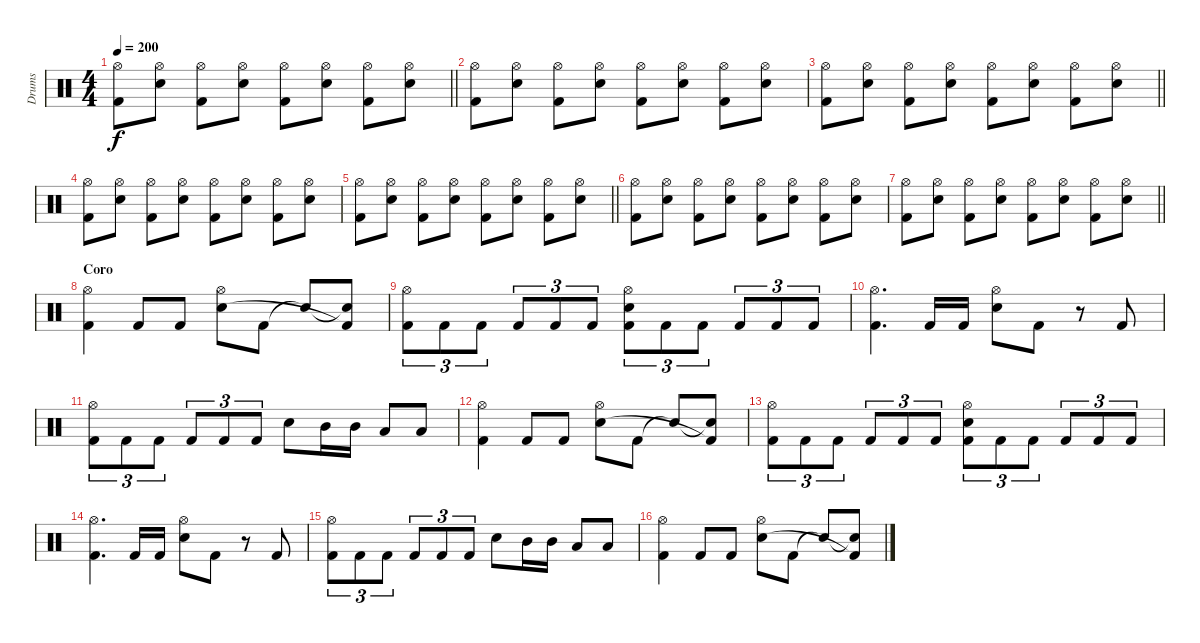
\track ("Drums" "Drums") {instrument percussion}
\staff {score}
\articulation defaults
\ts (4 4)
\tempo 200
\clef neutral
\barLineRight lightlight
\ks c
("Hi-Hat (open)" "Kick (hit) 2").8{dy f} ("Hi-Hat (open)" "Electric Snare (hit)").8 ("Hi-Hat (open)" "Kick (hit) 2").8 ("Hi-Hat (open)" "Electric Snare (hit)").8 ("Hi-Hat (open)" "Kick (hit) 2").8 ("Hi-Hat (open)" "Electric Snare (hit)").8 ("Hi-Hat (open)" "Kick (hit) 2").8 ("Hi-Hat (open)" "Electric Snare (hit)").8 |
("Hi-Hat (open)" "Kick (hit) 2").8 ("Hi-Hat (open)" "Electric Snare (hit)").8 ("Hi-Hat (open)" "Kick (hit) 2").8 ("Hi-Hat (open)" "Electric Snare (hit)").8 ("Hi-Hat (open)" "Kick (hit) 2").8 ("Hi-Hat (open)" "Electric Snare (hit)").8 ("Hi-Hat (open)" "Kick (hit) 2").8 ("Hi-Hat (open)" "Electric Snare (hit)").8 |
\barLineRight lightlight
("Hi-Hat (open)" "Kick (hit) 2").8 ("Hi-Hat (open)" "Electric Snare (hit)").8 ("Hi-Hat (open)" "Kick (hit) 2").8 ("Hi-Hat (open)" "Electric Snare (hit)").8 ("Hi-Hat (open)" "Kick (hit) 2").8 ("Hi-Hat (open)" "Electric Snare (hit)").8 ("Hi-Hat (open)" "Kick (hit) 2").8 ("Hi-Hat (open)" "Electric Snare (hit)").8 |
("Hi-Hat (open)" "Kick (hit) 2").8 ("Hi-Hat (open)" "Electric Snare (hit)").8 ("Hi-Hat (open)" "Kick (hit) 2").8 ("Hi-Hat (open)" "Electric Snare (hit)").8 ("Hi-Hat (open)" "Kick (hit) 2").8 ("Hi-Hat (open)" "Electric Snare (hit)").8 ("Hi-Hat (open)" "Kick (hit) 2").8 ("Hi-Hat (open)" "Electric Snare (hit)").8 |
\barLineRight lightlight
("Hi-Hat (open)" "Kick (hit) 2").8 ("Hi-Hat (open)" "Electric Snare (hit)").8 ("Hi-Hat (open)" "Kick (hit) 2").8 ("Hi-Hat (open)" "Electric Snare (hit)").8 ("Hi-Hat (open)" "Kick (hit) 2").8 ("Hi-Hat (open)" "Electric Snare (hit)").8 ("Hi-Hat (open)" "Kick (hit) 2").8 ("Hi-Hat (open)" "Electric Snare (hit)").8 |
("Hi-Hat (open)" "Kick (hit) 2").8 ("Hi-Hat (open)" "Electric Snare (hit)").8 ("Hi-Hat (open)" "Kick (hit) 2").8 ("Hi-Hat (open)" "Electric Snare (hit)").8 ("Hi-Hat (open)" "Kick (hit) 2").8 ("Hi-Hat (open)" "Electric Snare (hit)").8 ("Hi-Hat (open)" "Kick (hit) 2").8 ("Hi-Hat (open)" "Electric Snare (hit)").8 |
\barLineRight lightlight
("Hi-Hat (open)" "Kick (hit) 2").8 ("Hi-Hat (open)" "Electric Snare (hit)").8 ("Hi-Hat (open)" "Kick (hit) 2").8 ("Hi-Hat (open)" "Electric Snare (hit)").8 ("Hi-Hat (open)" "Kick (hit) 2").8 ("Hi-Hat (open)" "Electric Snare (hit)").8 ("Hi-Hat (open)" "Kick (hit) 2").8 ("Hi-Hat (open)" "Electric Snare (hit)").8 |
\section ("" "Coro")
("Hi-Hat (open)" "Kick (hit) 2").4 "Kick (hit) 2".8 "Kick (hit) 2".8 ("Hi-Hat (open)" "Electric Snare (hit)").8 "Kick (hit) 2".8 "Snare (hit)"{t}.8 ("Snare (hit)"{t} "Kick (hit) 2"{t}).8 |
("Hi-Hat (open)" "Kick (hit) 2").8{tu (3 2)} "Kick (hit) 2".8{tu (3 2)} "Kick (hit) 2".8{tu (3 2)} "Kick (hit) 2".8{tu (3 2)} "Kick (hit) 2".8{tu (3 2)} "Kick (hit) 2".8{tu (3 2)} ("Hi-Hat (open)" "Electric Snare (hit)" "Kick (hit) 2").8{tu (3 2)} "Kick (hit) 2".8{tu (3 2)} "Kick (hit) 2".8{tu (3 2)} "Kick (hit) 2".8{tu (3 2)} "Kick (hit) 2".8{tu (3 2)} "Kick (hit) 2".8{tu (3 2)} |
("Hi-Hat (open)" "Kick (hit) 2").4{d} "Kick (hit) 2".16 "Kick (hit) 2".16 ("Hi-Hat (open)" "Electric Snare (hit)").8 "Kick (hit) 2".8 r.8 "Kick (hit) 2".8 |
("Hi-Hat (open)" "Kick (hit) 2").8{tu (3 2)} "Kick (hit) 2".8{tu (3 2)} "Kick (hit) 2".8{tu (3 2)} "Kick (hit) 2".8{tu (3 2)} "Kick (hit) 2".8{tu (3 2)} "Kick (hit) 2".8{tu (3 2)} "Electric Snare (hit)".8 "Mid Tom (hit)".16 "Mid Tom (hit)".16 "Low Tom (hit)".8 "Low Tom (hit)".8 |
("Hi-Hat (open)" "Kick (hit) 2").4 "Kick (hit) 2".8 "Kick (hit) 2".8 ("Hi-Hat (open)" "Electric Snare (hit)").8 "Kick (hit) 2".8 "Snare (hit)"{t}.8 ("Snare (hit)"{t} "Kick (hit) 2"{t}).8 |
("Hi-Hat (open)" "Kick (hit) 2").8{tu (3 2)} "Kick (hit) 2".8{tu (3 2)} "Kick (hit) 2".8{tu (3 2)} "Kick (hit) 2".8{tu (3 2)} "Kick (hit) 2".8{tu (3 2)} "Kick (hit) 2".8{tu (3 2)} ("Hi-Hat (open)" "Electric Snare (hit)" "Kick (hit) 2").8{tu (3 2)} "Kick (hit) 2".8{tu (3 2)} "Kick (hit) 2".8{tu (3 2)} "Kick (hit) 2".8{tu (3 2)} "Kick (hit) 2".8{tu (3 2)} "Kick (hit) 2".8{tu (3 2)} |
("Hi-Hat (open)" "Kick (hit) 2").4{d} "Kick (hit) 2".16 "Kick (hit) 2".16 ("Hi-Hat (open)" "Electric Snare (hit)").8 "Kick (hit) 2".8 r.8 "Kick (hit) 2".8 |
("Hi-Hat (open)" "Kick (hit) 2").8{tu (3 2)} "Kick (hit) 2".8{tu (3 2)} "Kick (hit) 2".8{tu (3 2)} "Kick (hit) 2".8{tu (3 2)} "Kick (hit) 2".8{tu (3 2)} "Kick (hit) 2".8{tu (3 2)} "Electric Snare (hit)".8 "Mid Tom (hit)".16 "Mid Tom (hit)".16 "Low Tom (hit)".8 "Low Tom (hit)".8 |
("Hi-Hat (open)" "Kick (hit) 2").4 "Kick (hit) 2".8 "Kick (hit) 2".8 ("Hi-Hat (open)" "Electric Snare (hit)").8 "Kick (hit) 2".8 "Snare (hit)"{t}.8 ("Snare (hit)"{t} "Kick (hit) 2"{t}).8
